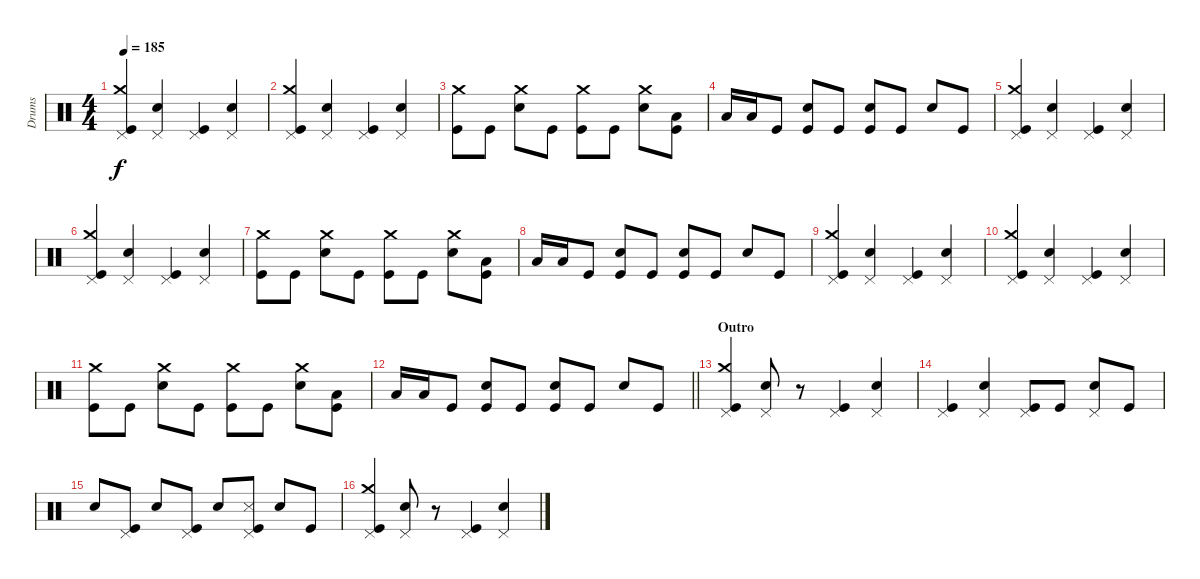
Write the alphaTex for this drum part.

\track ("Drums" "Drums") {instrument percussion}
\staff {score}
\articulation defaults
\ts (4 4)
\tempo 185
\clef neutral
\ks c
("Pedal Hi-Hat (hit)" "Crash medium (hit)" "Kick (hit)").4{dy f} ("Pedal Hi-Hat (hit)" "Snare (hit) 2").4 ("Pedal Hi-Hat (hit)" "Kick (hit)").4 ("Pedal Hi-Hat (hit)" "Snare (hit) 2").4 |
("Pedal Hi-Hat (hit)" "Crash medium (hit)" "Kick (hit)").4 ("Pedal Hi-Hat (hit)" "Snare (hit) 2").4 ("Pedal Hi-Hat (hit)" "Kick (hit)").4 ("Pedal Hi-Hat (hit)" "Snare (hit) 2").4 |
("Crash medium (hit)" "Kick (hit)").8 "Kick (hit)".8 ("Crash medium (hit)" "Snare (hit) 2").8 "Kick (hit)".8 ("Crash medium (hit)" "Kick (hit)").8 "Kick (hit)".8 ("Crash medium (hit)" "Snare (hit) 2").8 ("Low Tom (hit)" "Kick (hit)").8 |
"Low Tom (hit)".16 "Low Tom (hit)".16 "Kick (hit)".8 ("Snare (hit) 2" "Kick (hit)").8 "Kick (hit)".8 ("Snare (hit) 2" "Kick (hit)").8 "Kick (hit)".8 "Snare (hit) 2".8 "Kick (hit)".8 |
("Pedal Hi-Hat (hit)" "Crash medium (hit)" "Kick (hit)").4 ("Pedal Hi-Hat (hit)" "Snare (hit) 2").4 ("Pedal Hi-Hat (hit)" "Kick (hit)").4 ("Pedal Hi-Hat (hit)" "Snare (hit) 2").4 |
("Pedal Hi-Hat (hit)" "Crash medium (hit)" "Kick (hit)").4 ("Pedal Hi-Hat (hit)" "Snare (hit) 2").4 ("Pedal Hi-Hat (hit)" "Kick (hit)").4 ("Pedal Hi-Hat (hit)" "Snare (hit) 2").4 |
("Crash medium (hit)" "Kick (hit)").8 "Kick (hit)".8 ("Crash medium (hit)" "Snare (hit) 2").8 "Kick (hit)".8 ("Crash medium (hit)" "Kick (hit)").8 "Kick (hit)".8 ("Crash medium (hit)" "Snare (hit) 2").8 ("Low Tom (hit)" "Kick (hit)").8 |
"Low Tom (hit)".16 "Low Tom (hit)".16 "Kick (hit)".8 ("Snare (hit) 2" "Kick (hit)").8 "Kick (hit)".8 ("Snare (hit) 2" "Kick (hit)").8 "Kick (hit)".8 "Snare (hit) 2".8 "Kick (hit)".8 |
("Pedal Hi-Hat (hit)" "Crash medium (hit)" "Kick (hit)").4 ("Pedal Hi-Hat (hit)" "Snare (hit) 2").4 ("Pedal Hi-Hat (hit)" "Kick (hit)").4 ("Pedal Hi-Hat (hit)" "Snare (hit) 2").4 |
("Pedal Hi-Hat (hit)" "Crash medium (hit)" "Kick (hit)").4 ("Pedal Hi-Hat (hit)" "Snare (hit) 2").4 ("Pedal Hi-Hat (hit)" "Kick (hit)").4 ("Pedal Hi-Hat (hit)" "Snare (hit) 2").4 |
("Crash medium (hit)" "Kick (hit)").8 "Kick (hit)".8 ("Crash medium (hit)" "Snare (hit) 2").8 "Kick (hit)".8 ("Crash medium (hit)" "Kick (hit)").8 "Kick (hit)".8 ("Crash medium (hit)" "Snare (hit) 2").8 ("Low Tom (hit)" "Kick (hit)").8 |
\barLineRight lightlight "Low Tom (hit)".16 "Low Tom (hit)".16 "Kick (hit)".8
("Snare (hit) 2" "Kick (hit)").8 "Kick (hit)".8 ("Snare (hit) 2" "Kick (hit)").8 "Kick (hit)".8 "Snare (hit) 2".8 "Kick (hit)".8 |
\section ("" "Outro")
("Pedal Hi-Hat (hit)" "Crash medium (hit)" "Kick (hit)").4 ("Pedal Hi-Hat (hit)" "Snare (hit) 2").8 r.8 ("Pedal Hi-Hat (hit)" "Kick (hit)").4 ("Pedal Hi-Hat (hit)" "Snare (hit) 2").4 |
("Pedal Hi-Hat (hit)" "Kick (hit)").4 ("Pedal Hi-Hat (hit)" "Snare (hit) 2").4 ("Pedal Hi-Hat (hit)" "Kick (hit)").8 "Kick (hit)".8 ("Pedal Hi-Hat (hit)" "Snare (hit) 2").8 "Kick (hit)".8 |
"Snare (hit) 2".8 ("Pedal Hi-Hat (hit)" "Kick (hit)").8 "Snare (hit) 2".8 ("Pedal Hi-Hat (hit)" "Kick (hit)").8 "Snare (hit) 2".8 ("Pedal Hi-Hat (hit)" "Snare (side stick) 3" "Kick (hit)").8 "Snare (hit) 2".8 "Kick (hit)".8 |
("Pedal Hi-Hat (hit)" "Crash medium (hit)" "Kick (hit)").4 ("Pedal Hi-Hat (hit)" "Snare (hit) 2").8 r.8 ("Pedal Hi-Hat (hit)" "Kick (hit)").4 ("Pedal Hi-Hat (hit)" "Snare (hit) 2").4
